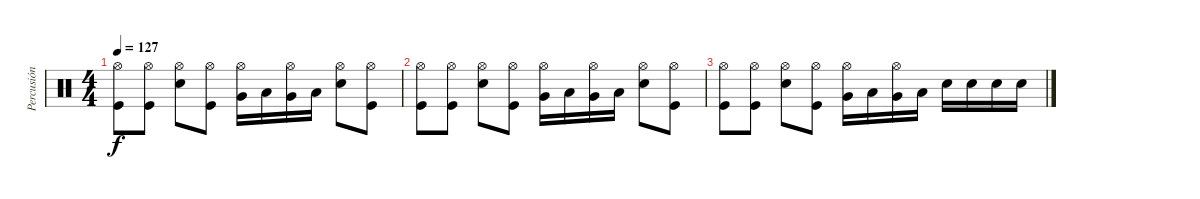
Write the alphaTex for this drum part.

\track ("Percusión" "Percusión") {instrument percussion}
\staff {score}
\articulation defaults
\ts (4 4)
\tempo 127
\clef neutral
\ks c
("Kick (hit)" "Hi-Hat (open)").8{dy f} ("Kick (hit)" "Hi-Hat (open)").8 ("Snare (hit) 2" "Hi-Hat (open)").8 ("Kick (hit)" "Hi-Hat (open)").8 ("Very Low Tom (hit)" "Hi-Hat (open)").16 "Low Tom (hit)".16 ("Very Low Tom (hit)" "Hi-Hat (open)").16 "Low Tom (hit)".16 ("Snare (hit) 2" "Hi-Hat (open)").8 ("Kick (hit)" "Hi-Hat (open)").8 |
("Kick (hit)" "Hi-Hat (open)").8 ("Kick (hit)" "Hi-Hat (open)").8 ("Snare (hit) 2" "Hi-Hat (open)").8 ("Kick (hit)" "Hi-Hat (open)").8 ("Very Low Tom (hit)" "Hi-Hat (open)").16 "Low Tom (hit)".16 ("Very Low Tom (hit)" "Hi-Hat (open)").16 "Low Tom (hit)".16 ("Snare (hit) 2" "Hi-Hat (open)").8 ("Kick (hit)" "Hi-Hat (open)").8 |
("Kick (hit)" "Hi-Hat (open)").8 ("Kick (hit)" "Hi-Hat (open)").8 ("Snare (hit) 2" "Hi-Hat (open)").8 ("Kick (hit)" "Hi-Hat (open)").8 ("Very Low Tom (hit)" "Hi-Hat (open)").16 "Low Tom (hit)".16 ("Very Low Tom (hit)" "Hi-Hat (open)").16 "Low Tom (hit)".16 "Snare (hit) 2".16 "Snare (hit) 2".16 "Snare (hit) 2".16 "Snare (hit) 2".16
